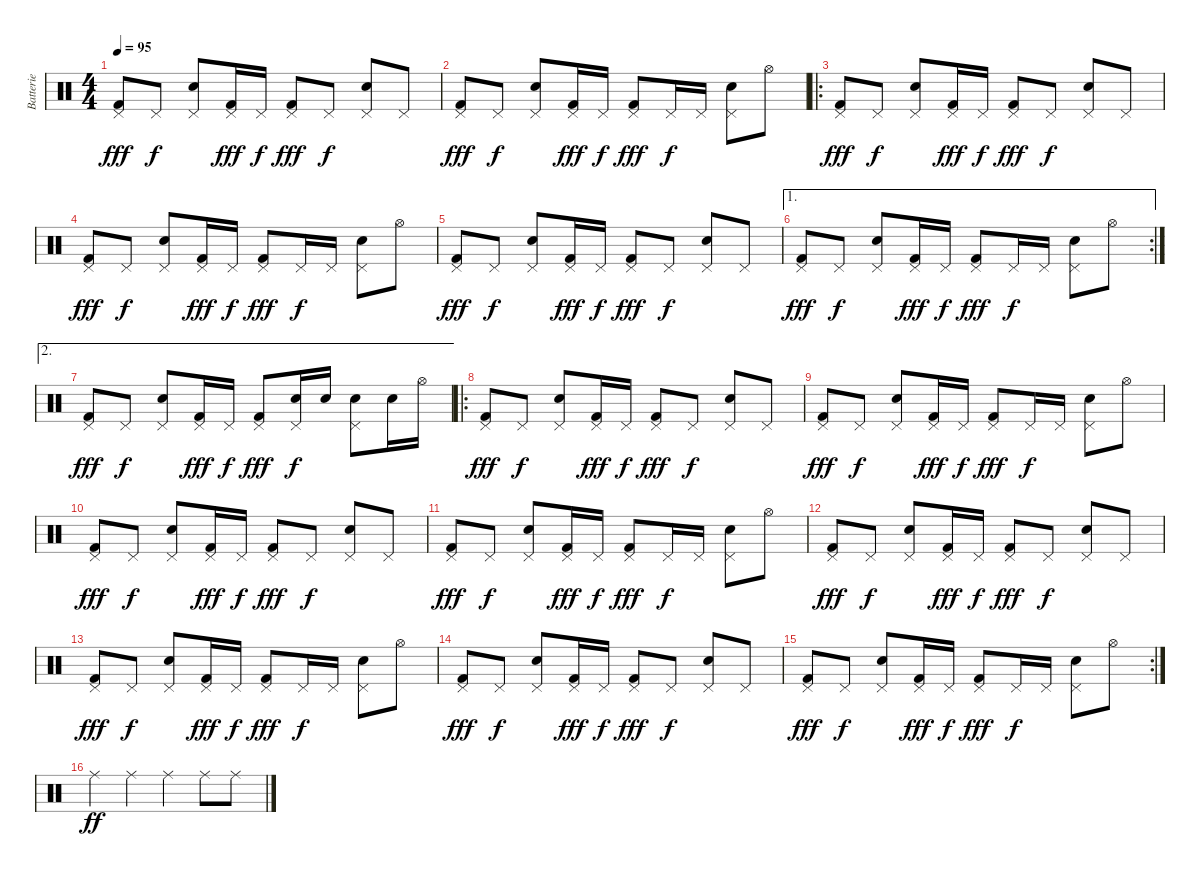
\track ("Batterie" "Batterie") {instrument percussion}
\staff {score}
\articulation defaults
\ts (4 4)
\tempo 95
\clef neutral
\ks c
("Pedal Hi-Hat (hit)" "Kick (hit) 2").8{dy fff} "Pedal Hi-Hat (hit)".8{dy f} ("Pedal Hi-Hat (hit)" "Electric Snare (hit)").8 ("Pedal Hi-Hat (hit)" "Kick (hit) 2").16{dy fff} "Pedal Hi-Hat (hit)".16{dy f} ("Pedal Hi-Hat (hit)" "Kick (hit) 2").8{dy fff} "Pedal Hi-Hat (hit)".8{dy f} ("Pedal Hi-Hat (hit)" "Electric Snare (hit)").8 "Pedal Hi-Hat (hit)".8 |
("Pedal Hi-Hat (hit)" "Kick (hit) 2").8{dy fff} "Pedal Hi-Hat (hit)".8{dy f} ("Pedal Hi-Hat (hit)" "Electric Snare (hit)").8 ("Pedal Hi-Hat (hit)" "Kick (hit) 2").16{dy fff} "Pedal Hi-Hat (hit)".16{dy f} ("Pedal Hi-Hat (hit)" "Kick (hit) 2").8{dy fff} "Pedal Hi-Hat (hit)".16{dy f} "Pedal Hi-Hat (hit)".16 ("Pedal Hi-Hat (hit)" "Electric Snare (hit)").8 "Hi-Hat (open)".8 |
\ro
("Pedal Hi-Hat (hit)" "Kick (hit) 2").8{dy fff} "Pedal Hi-Hat (hit)".8{dy f} ("Pedal Hi-Hat (hit)" "Electric Snare (hit)").8 ("Pedal Hi-Hat (hit)" "Kick (hit) 2").16{dy fff} "Pedal Hi-Hat (hit)".16{dy f} ("Pedal Hi-Hat (hit)" "Kick (hit) 2").8{dy fff} "Pedal Hi-Hat (hit)".8{dy f} ("Pedal Hi-Hat (hit)" "Electric Snare (hit)").8 "Pedal Hi-Hat (hit)".8 |
("Pedal Hi-Hat (hit)" "Kick (hit) 2").8{dy fff} "Pedal Hi-Hat (hit)".8{dy f} ("Pedal Hi-Hat (hit)" "Electric Snare (hit)").8 ("Pedal Hi-Hat (hit)" "Kick (hit) 2").16{dy fff} "Pedal Hi-Hat (hit)".16{dy f} ("Pedal Hi-Hat (hit)" "Kick (hit) 2").8{dy fff} "Pedal Hi-Hat (hit)".16{dy f} "Pedal Hi-Hat (hit)".16 ("Pedal Hi-Hat (hit)" "Electric Snare (hit)").8 "Hi-Hat (open)".8 |
("Pedal Hi-Hat (hit)" "Kick (hit) 2").8{dy fff} "Pedal Hi-Hat (hit)".8{dy f} ("Pedal Hi-Hat (hit)" "Electric Snare (hit)").8 ("Pedal Hi-Hat (hit)" "Kick (hit) 2").16{dy fff} "Pedal Hi-Hat (hit)".16{dy f} ("Pedal Hi-Hat (hit)" "Kick (hit) 2").8{dy fff} "Pedal Hi-Hat (hit)".8{dy f} ("Pedal Hi-Hat (hit)" "Electric Snare (hit)").8 "Pedal Hi-Hat (hit)".8 |
\ae 1
\rc 2
("Pedal Hi-Hat (hit)" "Kick (hit) 2").8{dy fff} "Pedal Hi-Hat (hit)".8{dy f} ("Pedal Hi-Hat (hit)" "Electric Snare (hit)").8 ("Pedal Hi-Hat (hit)" "Kick (hit) 2").16{dy fff} "Pedal Hi-Hat (hit)".16{dy f} ("Pedal Hi-Hat (hit)" "Kick (hit) 2").8{dy fff} "Pedal Hi-Hat (hit)".16{dy f} "Pedal Hi-Hat (hit)".16 ("Pedal Hi-Hat (hit)" "Electric Snare (hit)").8 "Hi-Hat (open)".8 |
\ae 2
("Pedal Hi-Hat (hit)" "Kick (hit) 2").8{dy fff} "Pedal Hi-Hat (hit)".8{dy f} ("Pedal Hi-Hat (hit)" "Electric Snare (hit)").8 ("Pedal Hi-Hat (hit)" "Kick (hit) 2").16{dy fff} "Pedal Hi-Hat (hit)".16{dy f} ("Pedal Hi-Hat (hit)" "Kick (hit) 2").8{dy fff} ("Pedal Hi-Hat (hit)" "Electric Snare (hit)").16{dy f} "Electric Snare (hit)".16 ("Pedal Hi-Hat (hit)" "Electric Snare (hit)").8 "Electric Snare (hit)".16 "Hi-Hat (open)".16 |
\ro
("Pedal Hi-Hat (hit)" "Kick (hit) 2").8{dy fff} "Pedal Hi-Hat (hit)".8{dy f} ("Pedal Hi-Hat (hit)" "Electric Snare (hit)").8 ("Pedal Hi-Hat (hit)" "Kick (hit) 2").16{dy fff} "Pedal Hi-Hat (hit)".16{dy f} ("Pedal Hi-Hat (hit)" "Kick (hit) 2").8{dy fff} "Pedal Hi-Hat (hit)".8{dy f} ("Pedal Hi-Hat (hit)" "Electric Snare (hit)").8 "Pedal Hi-Hat (hit)".8 |
("Pedal Hi-Hat (hit)" "Kick (hit) 2").8{dy fff} "Pedal Hi-Hat (hit)".8{dy f} ("Pedal Hi-Hat (hit)" "Electric Snare (hit)").8 ("Pedal Hi-Hat (hit)" "Kick (hit) 2").16{dy fff} "Pedal Hi-Hat (hit)".16{dy f} ("Pedal Hi-Hat (hit)" "Kick (hit) 2").8{dy fff} "Pedal Hi-Hat (hit)".16{dy f} "Pedal Hi-Hat (hit)".16 ("Pedal Hi-Hat (hit)" "Electric Snare (hit)").8 "Hi-Hat (open)".8 |
("Pedal Hi-Hat (hit)" "Kick (hit) 2").8{dy fff} "Pedal Hi-Hat (hit)".8{dy f} ("Pedal Hi-Hat (hit)" "Electric Snare (hit)").8 ("Pedal Hi-Hat (hit)" "Kick (hit) 2").16{dy fff} "Pedal Hi-Hat (hit)".16{dy f} ("Pedal Hi-Hat (hit)" "Kick (hit) 2").8{dy fff} "Pedal Hi-Hat (hit)".8{dy f} ("Pedal Hi-Hat (hit)" "Electric Snare (hit)").8 "Pedal Hi-Hat (hit)".8 |
("Pedal Hi-Hat (hit)" "Kick (hit) 2").8{dy fff} "Pedal Hi-Hat (hit)".8{dy f} ("Pedal Hi-Hat (hit)" "Electric Snare (hit)").8 ("Pedal Hi-Hat (hit)" "Kick (hit) 2").16{dy fff} "Pedal Hi-Hat (hit)".16{dy f} ("Pedal Hi-Hat (hit)" "Kick (hit) 2").8{dy fff} "Pedal Hi-Hat (hit)".16{dy f} "Pedal Hi-Hat (hit)".16 ("Pedal Hi-Hat (hit)" "Electric Snare (hit)").8 "Hi-Hat (open)".8 |
("Pedal Hi-Hat (hit)" "Kick (hit) 2").8{dy fff} "Pedal Hi-Hat (hit)".8{dy f} ("Pedal Hi-Hat (hit)" "Electric Snare (hit)").8 ("Pedal Hi-Hat (hit)" "Kick (hit) 2").16{dy fff} "Pedal Hi-Hat (hit)".16{dy f} ("Pedal Hi-Hat (hit)" "Kick (hit) 2").8{dy fff} "Pedal Hi-Hat (hit)".8{dy f} ("Pedal Hi-Hat (hit)" "Electric Snare (hit)").8 "Pedal Hi-Hat (hit)".8 |
("Pedal Hi-Hat (hit)" "Kick (hit) 2").8{dy fff} "Pedal Hi-Hat (hit)".8{dy f} ("Pedal Hi-Hat (hit)" "Electric Snare (hit)").8 ("Pedal Hi-Hat (hit)" "Kick (hit) 2").16{dy fff} "Pedal Hi-Hat (hit)".16{dy f} ("Pedal Hi-Hat (hit)" "Kick (hit) 2").8{dy fff} "Pedal Hi-Hat (hit)".16{dy f} "Pedal Hi-Hat (hit)".16 ("Pedal Hi-Hat (hit)" "Electric Snare (hit)").8 "Hi-Hat (open)".8 |
("Pedal Hi-Hat (hit)" "Kick (hit) 2").8{dy fff} "Pedal Hi-Hat (hit)".8{dy f} ("Pedal Hi-Hat (hit)" "Electric Snare (hit)").8 ("Pedal Hi-Hat (hit)" "Kick (hit) 2").16{dy fff} "Pedal Hi-Hat (hit)".16{dy f} ("Pedal Hi-Hat (hit)" "Kick (hit) 2").8{dy fff} "Pedal Hi-Hat (hit)".8{dy f} ("Pedal Hi-Hat (hit)" "Electric Snare (hit)").8 "Pedal Hi-Hat (hit)".8 |
\rc 2
("Pedal Hi-Hat (hit)" "Kick (hit) 2").8{dy fff} "Pedal Hi-Hat (hit)".8{dy f} ("Pedal Hi-Hat (hit)" "Electric Snare (hit)").8 ("Pedal Hi-Hat (hit)" "Kick (hit) 2").16{dy fff} "Pedal Hi-Hat (hit)".16{dy f} ("Pedal Hi-Hat (hit)" "Kick (hit) 2").8{dy fff} "Pedal Hi-Hat (hit)".16{dy f} "Pedal Hi-Hat (hit)".16 ("Pedal Hi-Hat (hit)" "Electric Snare (hit)").8 "Hi-Hat (open)".8 |
"Ride (middle)".4{dy ff} "Ride (middle)".4 "Ride (middle)".4 "Ride (middle)".8 "Ride (middle)".8
